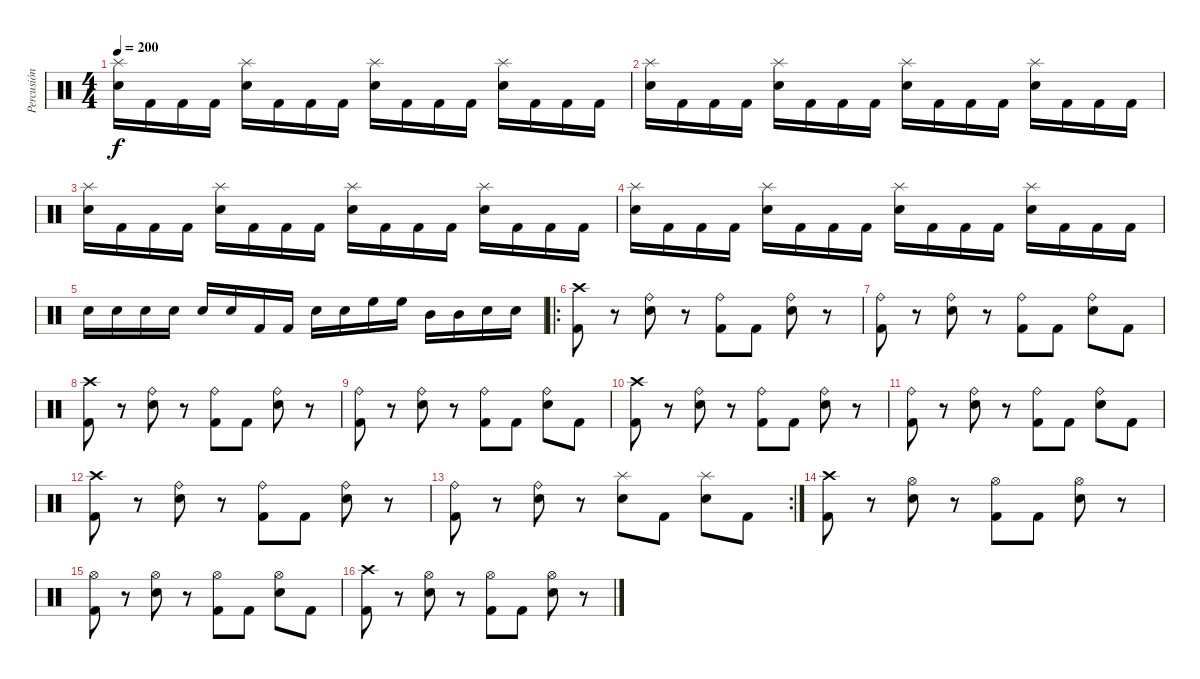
\track ("Percusión" "Percusión") {instrument percussion}
\staff {score}
\articulation defaults
\ts (4 4)
\tempo 200
\clef neutral
\ks c
("Splash (hit)" "Electric Snare (hit)").16{dy f} "Kick (hit) 2".16 "Kick (hit) 2".16 "Kick (hit) 2".16 ("Splash (hit)" "Electric Snare (hit)").16 "Kick (hit) 2".16 "Kick (hit) 2".16 "Kick (hit) 2".16 ("Splash (hit)" "Electric Snare (hit)").16 "Kick (hit) 2".16 "Kick (hit) 2".16 "Kick (hit) 2".16 ("Splash (hit)" "Electric Snare (hit)").16 "Kick (hit) 2".16 "Kick (hit) 2".16 "Kick (hit) 2".16 |
("Splash (hit)" "Electric Snare (hit)").16 "Kick (hit) 2".16 "Kick (hit) 2".16 "Kick (hit) 2".16 ("Splash (hit)" "Electric Snare (hit)").16 "Kick (hit) 2".16 "Kick (hit) 2".16 "Kick (hit) 2".16 ("Splash (hit)" "Electric Snare (hit)").16 "Kick (hit) 2".16 "Kick (hit) 2".16 "Kick (hit) 2".16 ("Splash (hit)" "Electric Snare (hit)").16 "Kick (hit) 2".16 "Kick (hit) 2".16 "Kick (hit) 2".16 |
("Splash (hit)" "Electric Snare (hit)").16 "Kick (hit) 2".16 "Kick (hit) 2".16 "Kick (hit) 2".16 ("Splash (hit)" "Electric Snare (hit)").16 "Kick (hit) 2".16 "Kick (hit) 2".16 "Kick (hit) 2".16 ("Splash (hit)" "Electric Snare (hit)").16 "Kick (hit) 2".16 "Kick (hit) 2".16 "Kick (hit) 2".16 ("Splash (hit)" "Electric Snare (hit)").16 "Kick (hit) 2".16 "Kick (hit) 2".16 "Kick (hit) 2".16 |
("Splash (hit)" "Electric Snare (hit)").16 "Kick (hit) 2".16 "Kick (hit) 2".16 "Kick (hit) 2".16 ("Splash (hit)" "Electric Snare (hit)").16 "Kick (hit) 2".16 "Kick (hit) 2".16 "Kick (hit) 2".16 ("Splash (hit)" "Electric Snare (hit)").16 "Kick (hit) 2".16 "Kick (hit) 2".16 "Kick (hit) 2".16 ("Splash (hit)" "Electric Snare (hit)").16 "Kick (hit) 2".16 "Kick (hit) 2".16 "Kick (hit) 2".16 |
"Electric Snare (hit)".16 "Electric Snare (hit)".16 "Electric Snare (hit)".16 "Electric Snare (hit)".16 "Electric Snare (hit)".16 "Electric Snare (hit)".16 "Kick (hit) 2".16 "Kick (hit) 2".16 "Electric Snare (hit)".16 "Electric Snare (hit)".16 "High Floor Tom (hit)".16 "High Floor Tom (hit)".16 "Mid Tom (hit)".16 "Mid Tom (hit)".16 "Electric Snare (hit)".16 "Electric Snare (hit)".16 |
\ro
("Crash high (hit)" "Kick (hit) 2").8 r.8 ("Ride (bell)" "Electric Snare (hit)").8 r.8 ("Ride (bell)" "Kick (hit) 2").8 "Kick (hit) 2".8 ("Ride (bell)" "Electric Snare (hit)").8 r.8 |
("Ride (bell)" "Kick (hit) 2").8 r.8 ("Ride (bell)" "Electric Snare (hit)").8 r.8 ("Ride (bell)" "Kick (hit) 2").8 "Kick (hit) 2".8 ("Ride (bell)" "Electric Snare (hit)").8 "Kick (hit) 2".8 |
("Crash high (hit)" "Kick (hit) 2").8 r.8 ("Ride (bell)" "Electric Snare (hit)").8 r.8 ("Ride (bell)" "Kick (hit) 2").8 "Kick (hit) 2".8 ("Ride (bell)" "Electric Snare (hit)").8 r.8 |
("Ride (bell)" "Kick (hit) 2").8 r.8 ("Ride (bell)" "Electric Snare (hit)").8 r.8 ("Ride (bell)" "Kick (hit) 2").8 "Kick (hit) 2".8 ("Ride (bell)" "Electric Snare (hit)").8 "Kick (hit) 2".8 |
("Crash high (hit)" "Kick (hit) 2").8 r.8 ("Ride (bell)" "Electric Snare (hit)").8 r.8 ("Ride (bell)" "Kick (hit) 2").8 "Kick (hit) 2".8 ("Ride (bell)" "Electric Snare (hit)").8 r.8 |
("Ride (bell)" "Kick (hit) 2").8 r.8 ("Ride (bell)" "Electric Snare (hit)").8 r.8 ("Ride (bell)" "Kick (hit) 2").8 "Kick (hit) 2".8 ("Ride (bell)" "Electric Snare (hit)").8 "Kick (hit) 2".8 |
("Crash high (hit)" "Kick (hit) 2").8 r.8 ("Ride (bell)" "Electric Snare (hit)").8 r.8 ("Ride (bell)" "Kick (hit) 2").8 "Kick (hit) 2".8 ("Ride (bell)" "Electric Snare (hit)").8 r.8 |
\rc 2
("Ride (bell)" "Kick (hit) 2").8 r.8 ("Ride (bell)" "Electric Snare (hit)").8 r.8 ("Splash (hit)" "Electric Snare (hit)").8 "Kick (hit) 2".8 ("Splash (hit)" "Electric Snare (hit)").8 "Kick (hit) 2".8 |
("Crash high (hit)" "Kick (hit) 2").8 r.8 ("Hi-Hat (open)" "Electric Snare (hit)").8 r.8 ("Hi-Hat (open)" "Kick (hit) 2").8 "Kick (hit) 2".8 ("Hi-Hat (open)" "Electric Snare (hit)").8 r.8 |
("Hi-Hat (open)" "Kick (hit) 2").8 r.8 ("Hi-Hat (open)" "Electric Snare (hit)").8 r.8 ("Hi-Hat (open)" "Kick (hit) 2").8 "Kick (hit) 2".8 ("Hi-Hat (open)" "Electric Snare (hit)").8 "Kick (hit) 2".8 |
("Crash high (hit)" "Kick (hit) 2").8 r.8 ("Hi-Hat (open)" "Electric Snare (hit)").8 r.8 ("Hi-Hat (open)" "Kick (hit) 2").8 "Kick (hit) 2".8 ("Hi-Hat (open)" "Electric Snare (hit)").8 r.8
